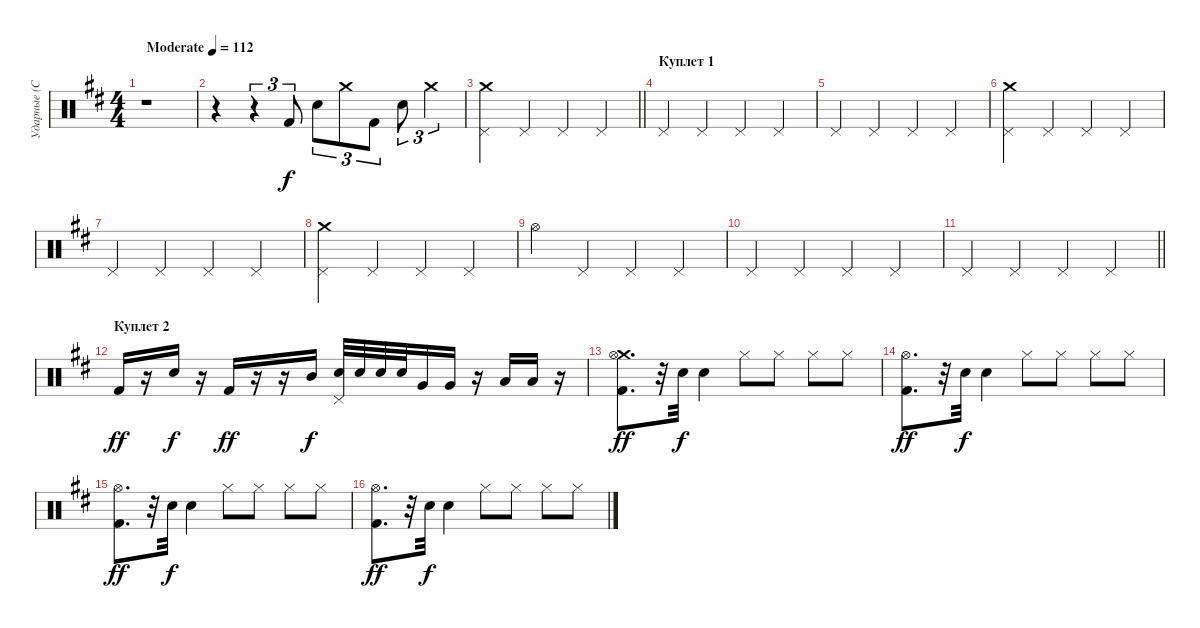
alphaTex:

\track ("Ударные (С.Кавагое)" "Ударные (С") {instrument percussion}
\staff {score}
\articulation defaults
\ts (4 4)
\tempo (112 "Moderate")
\clef neutral
\ks bminor
r.1{dy f} |
r.4 r.4{tu (3 2)} "Kick (hit) 2".8{tu (3 2)} "Electric Snare (hit)".8{tu (3 2)} "Crash medium (hit)".8{tu (3 2)} "Kick (hit) 2".8{tu (3 2)} "Electric Snare (hit)".8{tu (3 2)} "Crash medium (hit)".4{tu (3 2)} |
\barLineRight lightlight
("Crash medium (hit)" "Pedal Hi-Hat (hit)").4 "Pedal Hi-Hat (hit)".4 "Pedal Hi-Hat (hit)".4 "Pedal Hi-Hat (hit)".4 |
\section ("" "Куплет 1")
"Pedal Hi-Hat (hit)".4 "Pedal Hi-Hat (hit)".4 "Pedal Hi-Hat (hit)".4 "Pedal Hi-Hat (hit)".4 |
"Pedal Hi-Hat (hit)".4 "Pedal Hi-Hat (hit)".4 "Pedal Hi-Hat (hit)".4 "Pedal Hi-Hat (hit)".4 |
("Crash medium (hit)" "Pedal Hi-Hat (hit)").4 "Pedal Hi-Hat (hit)".4 "Pedal Hi-Hat (hit)".4 "Pedal Hi-Hat (hit)".4 |
"Pedal Hi-Hat (hit)".4 "Pedal Hi-Hat (hit)".4 "Pedal Hi-Hat (hit)".4 "Pedal Hi-Hat (hit)".4 |
("Crash medium (hit)" "Pedal Hi-Hat (hit)").4 "Pedal Hi-Hat (hit)".4 "Pedal Hi-Hat (hit)".4 "Pedal Hi-Hat (hit)".4 |
"Hi-Hat (open)".4 "Pedal Hi-Hat (hit)".4 "Pedal Hi-Hat (hit)".4 "Pedal Hi-Hat (hit)".4 |
"Pedal Hi-Hat (hit)".4 "Pedal Hi-Hat (hit)".4 "Pedal Hi-Hat (hit)".4 "Pedal Hi-Hat (hit)".4 |
\barLineRight lightlight "Pedal Hi-Hat (hit)".4 "Pedal Hi-Hat (hit)".4 "Pedal Hi-Hat (hit)".4 "Pedal Hi-Hat (hit)".4
|
\section ("" "Куплет 2")
"Kick (hit) 2".16{dy ff} r.16 "Electric Snare (hit)".16{dy f} r.16 "Kick (hit) 2".16{dy ff} r.16 r.16 "Mid Tom (hit)".16{dy f} ("Pedal Hi-Hat (hit)" "Electric Snare (hit)").32 "Electric Snare (hit)".32 "Electric Snare (hit)".32 "Electric Snare (hit)".32 "Very Low Tom (hit)".16 "Very Low Tom (hit)".16 r.16 "Low Floor Tom (hit)".16 "Low Floor Tom (hit)".16 r.16 |
("Crash medium (hit)" "Hi-Hat (open)" "Kick (hit) 2").8{d dy ff} r.32 "Electric Snare (hit)".32{dy f} "Electric Snare (hit)".4 "Hi-Hat (closed)".8 "Hi-Hat (closed)".8 "Hi-Hat (closed)".8 "Hi-Hat (closed)".8 |
("Hi-Hat (open)" "Kick (hit) 2").8{d dy ff} r.32 "Electric Snare (hit)".32{dy f} "Electric Snare (hit)".4 "Hi-Hat (closed)".8 "Hi-Hat (closed)".8 "Hi-Hat (closed)".8 "Hi-Hat (closed)".8 |
("Hi-Hat (open)" "Kick (hit) 2").8{d dy ff} r.32 "Electric Snare (hit)".32{dy f} "Electric Snare (hit)".4 "Hi-Hat (closed)".8 "Hi-Hat (closed)".8 "Hi-Hat (closed)".8 "Hi-Hat (closed)".8 |
("Hi-Hat (open)" "Kick (hit) 2").8{d dy ff} r.32 "Electric Snare (hit)".32{dy f} "Electric Snare (hit)".4 "Hi-Hat (closed)".8 "Hi-Hat (closed)".8 "Hi-Hat (closed)".8 "Hi-Hat (closed)".8
